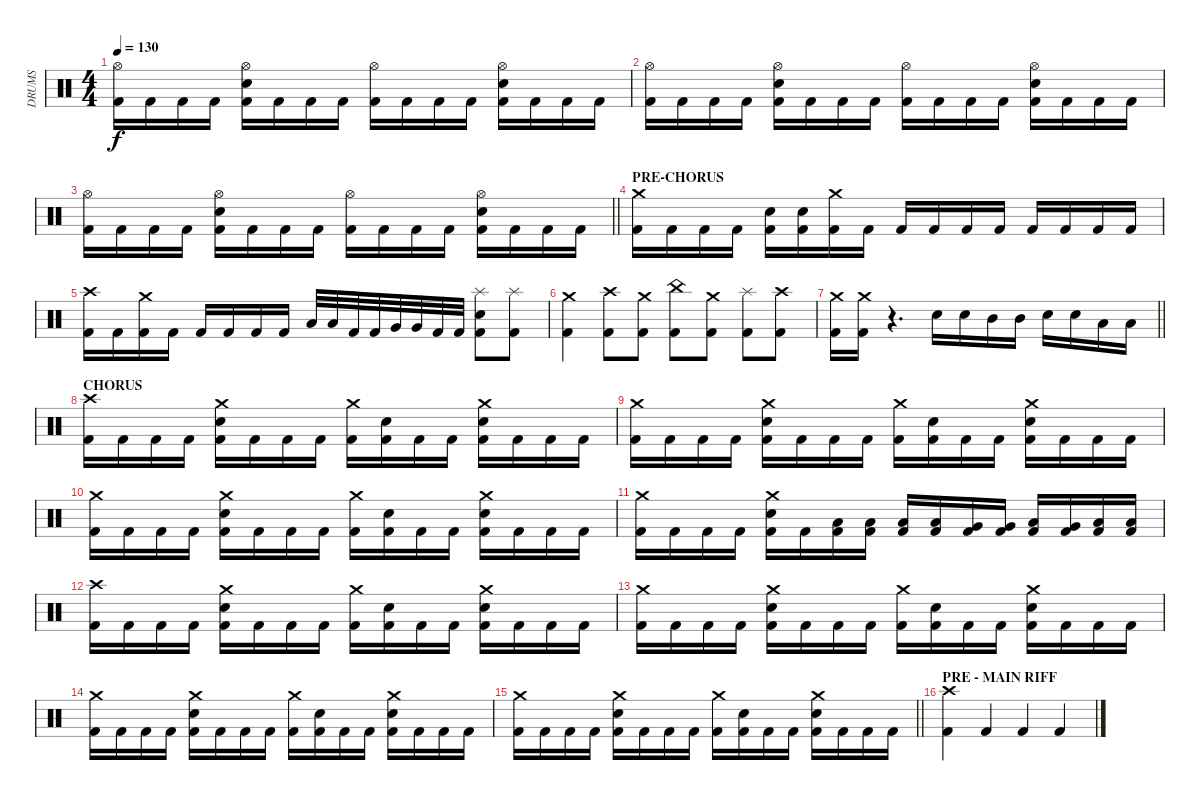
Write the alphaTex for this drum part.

\track ("DRUMS" "DRUMS") {instrument percussion}
\staff {score}
\articulation defaults
\ts (4 4)
\tempo 130
\clef neutral
\ks c
("Hi-Hat (open)" "Kick (hit) 2").16{dy f} "Kick (hit) 2".16 "Kick (hit) 2".16 "Kick (hit) 2".16 ("Hi-Hat (open)" "Electric Snare (hit)" "Kick (hit) 2").16 "Kick (hit) 2".16 "Kick (hit) 2".16 "Kick (hit) 2".16 ("Hi-Hat (open)" "Kick (hit) 2").16 "Kick (hit) 2".16 "Kick (hit) 2".16 "Kick (hit) 2".16 ("Hi-Hat (open)" "Electric Snare (hit)" "Kick (hit) 2").16 "Kick (hit) 2".16 "Kick (hit) 2".16 "Kick (hit) 2".16 |
("Hi-Hat (open)" "Kick (hit) 2").16 "Kick (hit) 2".16 "Kick (hit) 2".16 "Kick (hit) 2".16 ("Hi-Hat (open)" "Electric Snare (hit)" "Kick (hit) 2").16 "Kick (hit) 2".16 "Kick (hit) 2".16 "Kick (hit) 2".16 ("Hi-Hat (open)" "Kick (hit) 2").16 "Kick (hit) 2".16 "Kick (hit) 2".16 "Kick (hit) 2".16 ("Hi-Hat (open)" "Electric Snare (hit)" "Kick (hit) 2").16 "Kick (hit) 2".16 "Kick (hit) 2".16 "Kick (hit) 2".16 |
\barLineRight lightlight
("Hi-Hat (open)" "Kick (hit) 2").16 "Kick (hit) 2".16 "Kick (hit) 2".16 "Kick (hit) 2".16 ("Hi-Hat (open)" "Electric Snare (hit)" "Kick (hit) 2").16 "Kick (hit) 2".16 "Kick (hit) 2".16 "Kick (hit) 2".16 ("Hi-Hat (open)" "Kick (hit) 2").16 "Kick (hit) 2".16 "Kick (hit) 2".16 "Kick (hit) 2".16 ("Hi-Hat (open)" "Electric Snare (hit)" "Kick (hit) 2").16 "Kick (hit) 2".16 "Kick (hit) 2".16 "Kick (hit) 2".16 |
\section ("" "PRE-CHORUS")
("Crash medium (hit)" "Kick (hit) 2").16 "Kick (hit) 2".16 "Kick (hit) 2".16 "Kick (hit) 2".16 ("Electric Snare (hit)" "Kick (hit) 2").16 ("Electric Snare (hit)" "Kick (hit) 2").16 ("Crash medium (hit)" "Kick (hit) 2").16 "Kick (hit) 2".16 "Kick (hit) 2".16 "Kick (hit) 2".16 "Kick (hit) 2".16 "Kick (hit) 2".16 "Kick (hit) 2".16 "Kick (hit) 2".16 "Kick (hit) 2".16 "Kick (hit) 2".16 |
("Crash high (hit)" "Kick (hit) 2").16 "Kick (hit) 2".16 ("Crash medium (hit)" "Kick (hit) 2").16 "Kick (hit) 2".16 "Kick (hit) 2".16 "Kick (hit) 2".16 "Kick (hit) 2".16 "Kick (hit) 2".16 "Low Tom (hit)".32 "Low Tom (hit)".32 "Kick (hit) 2".32 "Kick (hit) 2".32 "Very Low Tom (hit)".32 "Very Low Tom (hit)".32 "Kick (hit) 2".32 "Kick (hit) 2".32 ("Splash (hit)" "Electric Snare (hit)" "Kick (hit) 2").8 ("Splash (hit)" "Kick (hit) 2").8 |
("Crash medium (hit)" "Kick (hit) 2").4 ("Crash high (hit)" "Kick (hit) 2").8 ("Crash medium (hit)" "Kick (hit) 2").8 ("China (hit)" "Kick (hit) 2").8 ("Crash medium (hit)" "Kick (hit) 2").8 ("Splash (hit)" "Kick (hit) 2").8 ("Crash high (hit)" "Kick (hit) 2").8 |
\barLineRight lightlight
("Crash medium (hit)" "Kick (hit) 2").16 ("Crash medium (hit)" "Kick (hit) 2").16 r.4{d} "Electric Snare (hit)".16 "Electric Snare (hit)".16 "Mid Tom (hit)".16 "Mid Tom (hit)".16 "Electric Snare (hit)".16 "Electric Snare (hit)".16 "Low Tom (hit)".16 "Low Tom (hit)".16 |
\section ("" "CHORUS")
("Crash high (hit)" "Kick (hit) 2").16 "Kick (hit) 2".16 "Kick (hit) 2".16 "Kick (hit) 2".16 ("Crash medium (hit)" "Electric Snare (hit)" "Kick (hit) 2").16 "Kick (hit) 2".16 "Kick (hit) 2".16 "Kick (hit) 2".16 ("Crash medium (hit)" "Kick (hit) 2").16 ("Electric Snare (hit)" "Kick (hit) 2").16 "Kick (hit) 2".16 "Kick (hit) 2".16 ("Crash medium (hit)" "Electric Snare (hit)" "Kick (hit) 2").16 "Kick (hit) 2".16 "Kick (hit) 2".16 "Kick (hit) 2".16 |
("Crash medium (hit)" "Kick (hit) 2").16 "Kick (hit) 2".16 "Kick (hit) 2".16 "Kick (hit) 2".16 ("Crash medium (hit)" "Electric Snare (hit)" "Kick (hit) 2").16 "Kick (hit) 2".16 "Kick (hit) 2".16 "Kick (hit) 2".16 ("Crash medium (hit)" "Kick (hit) 2").16 ("Electric Snare (hit)" "Kick (hit) 2").16 "Kick (hit) 2".16 "Kick (hit) 2".16 ("Crash medium (hit)" "Electric Snare (hit)" "Kick (hit) 2").16 "Kick (hit) 2".16 "Kick (hit) 2".16 "Kick (hit) 2".16 |
("Crash medium (hit)" "Kick (hit) 2").16 "Kick (hit) 2".16 "Kick (hit) 2".16 "Kick (hit) 2".16 ("Crash medium (hit)" "Electric Snare (hit)" "Kick (hit) 2").16 "Kick (hit) 2".16 "Kick (hit) 2".16 "Kick (hit) 2".16 ("Crash medium (hit)" "Kick (hit) 2").16 ("Electric Snare (hit)" "Kick (hit) 2").16 "Kick (hit) 2".16 "Kick (hit) 2".16 ("Crash medium (hit)" "Electric Snare (hit)" "Kick (hit) 2").16 "Kick (hit) 2".16 "Kick (hit) 2".16 "Kick (hit) 2".16 |
("Crash medium (hit)" "Kick (hit) 2").16 "Kick (hit) 2".16 "Kick (hit) 2".16 "Kick (hit) 2".16 ("Crash medium (hit)" "Electric Snare (hit)" "Kick (hit) 2").16 "Kick (hit) 2".16 ("Low Tom (hit)" "Kick (hit) 2").16 ("Low Tom (hit)" "Kick (hit) 2").16 ("Low Tom (hit)" "Kick (hit) 2").16 ("Low Tom (hit)" "Kick (hit) 2").16 ("Very Low Tom (hit)" "Kick (hit) 2").16 ("Very Low Tom (hit)" "Kick (hit) 2").16 ("Low Tom (hit)" "Kick (hit) 2").16 ("Very Low Tom (hit)" "Kick (hit) 2").16 ("Low Floor Tom (hit)" "Kick (hit) 2").16 ("Low Floor Tom (hit)" "Kick (hit) 2").16 |
("Crash high (hit)" "Kick (hit) 2").16 "Kick (hit) 2".16 "Kick (hit) 2".16 "Kick (hit) 2".16 ("Crash medium (hit)" "Electric Snare (hit)" "Kick (hit) 2").16 "Kick (hit) 2".16 "Kick (hit) 2".16 "Kick (hit) 2".16 ("Crash medium (hit)" "Kick (hit) 2").16 ("Electric Snare (hit)" "Kick (hit) 2").16 "Kick (hit) 2".16 "Kick (hit) 2".16 ("Crash medium (hit)" "Electric Snare (hit)" "Kick (hit) 2").16 "Kick (hit) 2".16 "Kick (hit) 2".16 "Kick (hit) 2".16 |
("Crash medium (hit)" "Kick (hit) 2").16 "Kick (hit) 2".16 "Kick (hit) 2".16 "Kick (hit) 2".16 ("Crash medium (hit)" "Electric Snare (hit)" "Kick (hit) 2").16 "Kick (hit) 2".16 "Kick (hit) 2".16 "Kick (hit) 2".16 ("Crash medium (hit)" "Kick (hit) 2").16 ("Electric Snare (hit)" "Kick (hit) 2").16 "Kick (hit) 2".16 "Kick (hit) 2".16 ("Crash medium (hit)" "Electric Snare (hit)" "Kick (hit) 2").16 "Kick (hit) 2".16 "Kick (hit) 2".16 "Kick (hit) 2".16 |
("Crash medium (hit)" "Kick (hit) 2").16 "Kick (hit) 2".16 "Kick (hit) 2".16 "Kick (hit) 2".16 ("Crash medium (hit)" "Electric Snare (hit)" "Kick (hit) 2").16 "Kick (hit) 2".16 "Kick (hit) 2".16 "Kick (hit) 2".16 ("Crash medium (hit)" "Kick (hit) 2").16 ("Electric Snare (hit)" "Kick (hit) 2").16 "Kick (hit) 2".16 "Kick (hit) 2".16 ("Crash medium (hit)" "Electric Snare (hit)" "Kick (hit) 2").16 "Kick (hit) 2".16 "Kick (hit) 2".16 "Kick (hit) 2".16 |
\barLineRight lightlight
("Crash medium (hit)" "Kick (hit) 2").16 "Kick (hit) 2".16 "Kick (hit) 2".16 "Kick (hit) 2".16 ("Crash medium (hit)" "Electric Snare (hit)" "Kick (hit) 2").16 "Kick (hit) 2".16 "Kick (hit) 2".16 "Kick (hit) 2".16 ("Crash medium (hit)" "Kick (hit) 2").16 ("Electric Snare (hit)" "Kick (hit) 2").16 "Kick (hit) 2".16 "Kick (hit) 2".16 ("Crash medium (hit)" "Electric Snare (hit)" "Kick (hit) 2").16 "Kick (hit) 2".16 "Kick (hit) 2".16 "Kick (hit) 2".16 |
\section ("" "PRE - MAIN RIFF")
("Crash high (hit)" "Kick (hit) 2").4 "Kick (hit) 2".4 "Kick (hit) 2".4 "Kick (hit) 2".4
